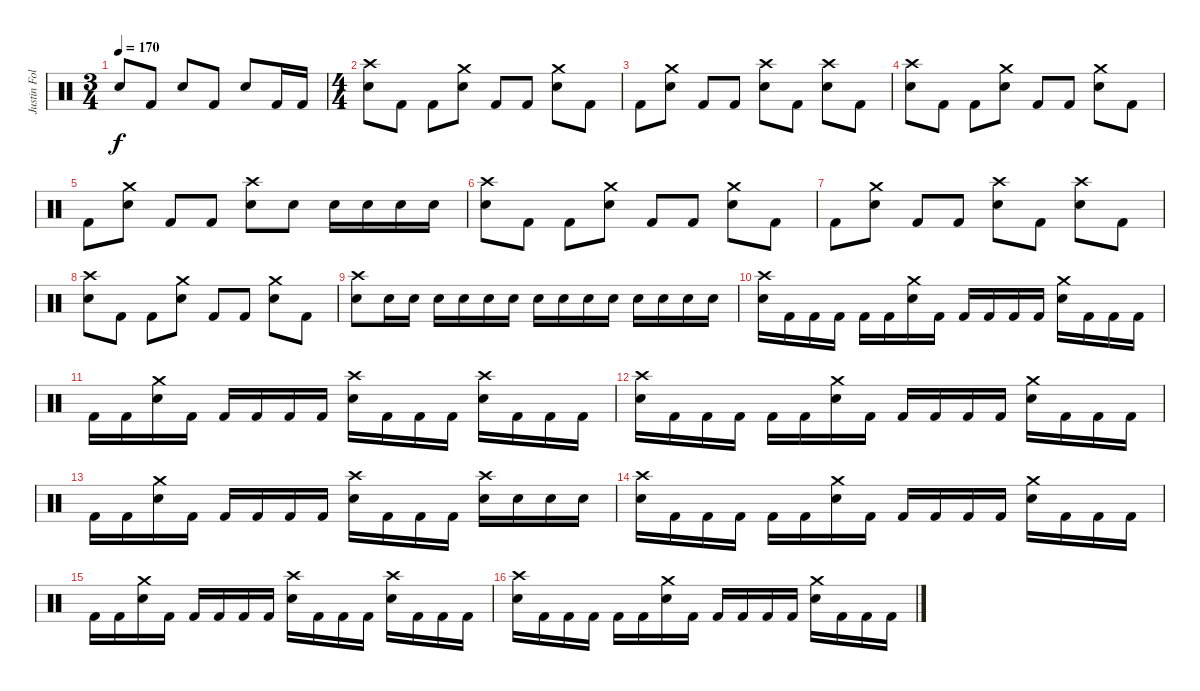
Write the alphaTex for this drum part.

\track ("Justin Foley" "Justin Fol") {instrument percussion}
\staff {score}
\articulation defaults
\ts (3 4)
\tempo 170
\clef neutral
\ks c "Snare (hit) 2".8{dy f} "Kick (hit) 2".8 "Snare (hit) 2".8 "Kick (hit) 2".8 "Snare (hit) 2".8 "Kick (hit) 2".16 "Kick (hit) 2".16
|
\ts (4 4)
("Crash high (hit)" "Snare (hit) 2").8 "Kick (hit) 2".8 "Kick (hit) 2".8 ("Crash medium (hit)" "Snare (hit) 2").8 "Kick (hit) 2".8 "Kick (hit) 2".8 ("Crash medium (hit)" "Snare (hit) 2").8 "Kick (hit) 2".8 |
"Kick (hit) 2".8 ("Crash medium (hit)" "Snare (hit) 2").8 "Kick (hit) 2".8 "Kick (hit) 2".8 ("Crash high (hit)" "Snare (hit) 2").8 "Kick (hit) 2".8 ("Crash high (hit)" "Snare (hit) 2").8 "Kick (hit) 2".8 |
("Crash high (hit)" "Snare (hit) 2").8 "Kick (hit) 2".8 "Kick (hit) 2".8 ("Crash medium (hit)" "Snare (hit) 2").8 "Kick (hit) 2".8 "Kick (hit) 2".8 ("Crash medium (hit)" "Snare (hit) 2").8 "Kick (hit) 2".8 |
"Kick (hit) 2".8 ("Crash medium (hit)" "Snare (hit) 2").8 "Kick (hit) 2".8 "Kick (hit) 2".8 ("Crash high (hit)" "Snare (hit) 2").8 "Snare (hit) 2".8 "Snare (hit) 2".16 "Snare (hit) 2".16 "Snare (hit) 2".16 "Snare (hit) 2".16 |
("Crash high (hit)" "Snare (hit) 2").8 "Kick (hit) 2".8 "Kick (hit) 2".8 ("Crash medium (hit)" "Snare (hit) 2").8 "Kick (hit) 2".8 "Kick (hit) 2".8 ("Crash medium (hit)" "Snare (hit) 2").8 "Kick (hit) 2".8 |
"Kick (hit) 2".8 ("Crash medium (hit)" "Snare (hit) 2").8 "Kick (hit) 2".8 "Kick (hit) 2".8 ("Crash high (hit)" "Snare (hit) 2").8 "Kick (hit) 2".8 ("Crash high (hit)" "Snare (hit) 2").8 "Kick (hit) 2".8 |
("Crash high (hit)" "Snare (hit) 2").8 "Kick (hit) 2".8 "Kick (hit) 2".8 ("Crash medium (hit)" "Snare (hit) 2").8 "Kick (hit) 2".8 "Kick (hit) 2".8 ("Crash medium (hit)" "Snare (hit) 2").8 "Kick (hit) 2".8 |
("Crash high (hit)" "Snare (hit) 2").8 "Snare (hit) 2".16 "Snare (hit) 2".16 "Snare (hit) 2".16 "Snare (hit) 2".16 "Snare (hit) 2".16 "Snare (hit) 2".16 "Snare (hit) 2".16 "Snare (hit) 2".16 "Snare (hit) 2".16 "Snare (hit) 2".16 "Snare (hit) 2".16 "Snare (hit) 2".16 "Snare (hit) 2".16 "Snare (hit) 2".16 |
("Crash high (hit)" "Snare (hit) 2").16 "Kick (hit) 2".16 "Kick (hit) 2".16 "Kick (hit) 2".16 "Kick (hit) 2".16 "Kick (hit) 2".16 ("Crash medium (hit)" "Snare (hit) 2").16 "Kick (hit) 2".16 "Kick (hit) 2".16 "Kick (hit) 2".16 "Kick (hit) 2".16 "Kick (hit) 2".16 ("Crash medium (hit)" "Snare (hit) 2").16 "Kick (hit) 2".16 "Kick (hit) 2".16 "Kick (hit) 2".16 |
"Kick (hit) 2".16 "Kick (hit) 2".16 ("Crash medium (hit)" "Snare (hit) 2").16 "Kick (hit) 2".16 "Kick (hit) 2".16 "Kick (hit) 2".16 "Kick (hit) 2".16 "Kick (hit) 2".16 ("Crash high (hit)" "Snare (hit) 2").16 "Kick (hit) 2".16 "Kick (hit) 2".16 "Kick (hit) 2".16 ("Crash high (hit)" "Snare (hit) 2").16 "Kick (hit) 2".16 "Kick (hit) 2".16 "Kick (hit) 2".16 |
("Crash high (hit)" "Snare (hit) 2").16 "Kick (hit) 2".16 "Kick (hit) 2".16 "Kick (hit) 2".16 "Kick (hit) 2".16 "Kick (hit) 2".16 ("Crash medium (hit)" "Snare (hit) 2").16 "Kick (hit) 2".16 "Kick (hit) 2".16 "Kick (hit) 2".16 "Kick (hit) 2".16 "Kick (hit) 2".16 ("Crash medium (hit)" "Snare (hit) 2").16 "Kick (hit) 2".16 "Kick (hit) 2".16 "Kick (hit) 2".16 |
"Kick (hit) 2".16 "Kick (hit) 2".16 ("Crash medium (hit)" "Snare (hit) 2").16 "Kick (hit) 2".16 "Kick (hit) 2".16 "Kick (hit) 2".16 "Kick (hit) 2".16 "Kick (hit) 2".16 ("Crash high (hit)" "Snare (hit) 2").16 "Kick (hit) 2".16 "Kick (hit) 2".16 "Kick (hit) 2".16 ("Crash high (hit)" "Snare (hit) 2").16 "Snare (hit) 2".16 "Snare (hit) 2".16 "Snare (hit) 2".16 |
("Crash high (hit)" "Snare (hit) 2").16 "Kick (hit) 2".16 "Kick (hit) 2".16 "Kick (hit) 2".16 "Kick (hit) 2".16 "Kick (hit) 2".16 ("Crash medium (hit)" "Snare (hit) 2").16 "Kick (hit) 2".16 "Kick (hit) 2".16 "Kick (hit) 2".16 "Kick (hit) 2".16 "Kick (hit) 2".16 ("Crash medium (hit)" "Snare (hit) 2").16 "Kick (hit) 2".16 "Kick (hit) 2".16 "Kick (hit) 2".16 |
"Kick (hit) 2".16 "Kick (hit) 2".16 ("Crash medium (hit)" "Snare (hit) 2").16 "Kick (hit) 2".16 "Kick (hit) 2".16 "Kick (hit) 2".16 "Kick (hit) 2".16 "Kick (hit) 2".16 ("Crash high (hit)" "Snare (hit) 2").16 "Kick (hit) 2".16 "Kick (hit) 2".16 "Kick (hit) 2".16 ("Crash high (hit)" "Snare (hit) 2").16 "Kick (hit) 2".16 "Kick (hit) 2".16 "Kick (hit) 2".16 |
("Crash high (hit)" "Snare (hit) 2").16 "Kick (hit) 2".16 "Kick (hit) 2".16 "Kick (hit) 2".16 "Kick (hit) 2".16 "Kick (hit) 2".16 ("Crash medium (hit)" "Snare (hit) 2").16 "Kick (hit) 2".16 "Kick (hit) 2".16 "Kick (hit) 2".16 "Kick (hit) 2".16 "Kick (hit) 2".16 ("Crash medium (hit)" "Snare (hit) 2").16 "Kick (hit) 2".16 "Kick (hit) 2".16 "Kick (hit) 2".16
